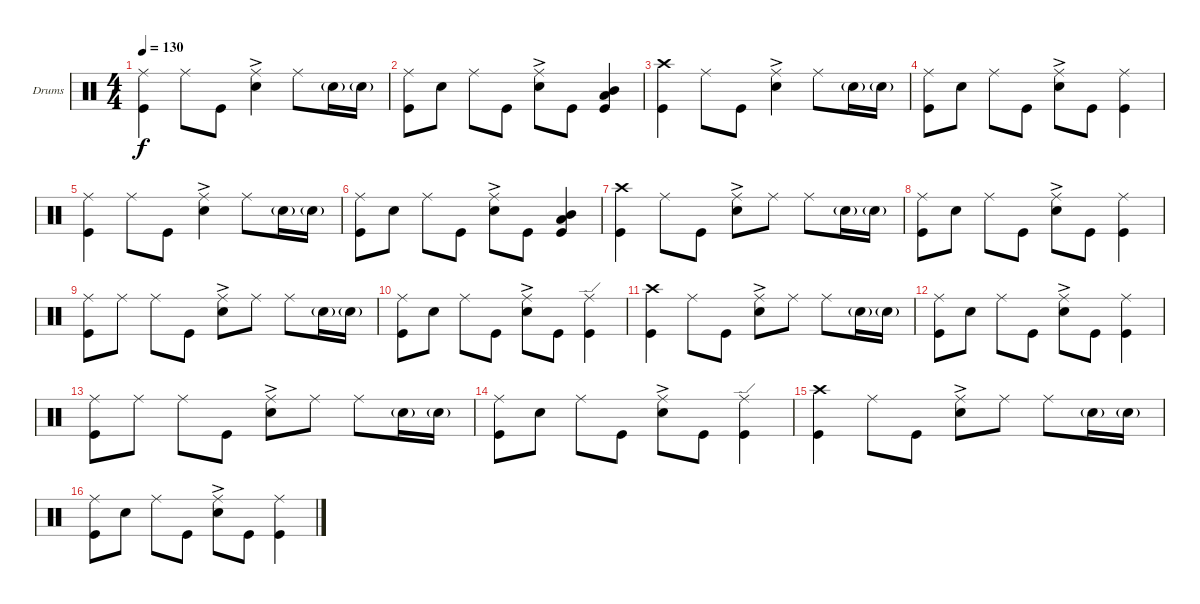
\bracketExtendMode groupsimilarinstruments
\firstSystemTrackNameOrientation horizontal
\otherSystemsTrackNameOrientation horizontal
\track ("Drumkit" "Drums") {instrument percussion}
\staff {score}
\articulation defaults
\ts (4 4)
\tempo 130
\clef neutral
\ks c
("Kick (hit)" "Ride (middle)").4{dy f} "Ride (middle)".8 "Kick (hit)".8 ("Snare (hit) 2"{ac} "Ride (middle)").4 "Ride (middle)".8 "Snare (hit) 2"{g}.16 "Snare (hit) 2"{g}.16 |
("Kick (hit)" "Ride (middle)").8 "Snare (hit) 2".8 "Ride (middle)".8 "Kick (hit)".8 ("Snare (hit) 2"{ac} "Ride (middle)").8 "Kick (hit)".8 ("Kick (hit)" "Mid Tom (hit)" "Low Tom (hit)").4 |
("Kick (hit)" "Crash high (hit)").4 "Ride (middle)".8 "Kick (hit)".8 ("Snare (hit) 2"{ac} "Ride (middle)").4 "Ride (middle)".8 "Snare (hit) 2"{g}.16 "Snare (hit) 2"{g}.16 |
("Kick (hit)" "Ride (middle)").8 "Snare (hit) 2".8 "Ride (middle)".8 "Kick (hit)".8 ("Snare (hit) 2"{ac} "Ride (middle)").8 "Kick (hit)".8 ("Kick (hit)" "Ride (middle)").4 |
("Kick (hit)" "Ride (middle)").4 "Ride (middle)".8 "Kick (hit)".8 ("Snare (hit) 2"{ac} "Ride (middle)").4 "Ride (middle)".8 "Snare (hit) 2"{g}.16 "Snare (hit) 2"{g}.16 |
("Kick (hit)" "Ride (middle)").8 "Snare (hit) 2".8 "Ride (middle)".8 "Kick (hit)".8 ("Snare (hit) 2"{ac} "Ride (middle)").8 "Kick (hit)".8 ("Kick (hit)" "Mid Tom (hit)" "Low Tom (hit)").4 |
("Kick (hit)" "Crash high (hit)").4 "Ride (middle)".8 "Kick (hit)".8 ("Snare (hit) 2"{ac} "Ride (middle)").8 "Ride (middle)".8 "Ride (middle)".8 "Snare (hit) 2"{g}.16 "Snare (hit) 2"{g}.16 |
("Kick (hit)" "Ride (middle)").8 "Snare (hit) 2".8 "Ride (middle)".8 "Kick (hit)".8 ("Snare (hit) 2"{ac} "Ride (middle)").8 "Kick (hit)".8 ("Kick (hit)" "Ride (middle)").4 |
("Kick (hit)" "Ride (middle)").8 "Ride (middle)".8 "Ride (middle)".8 "Kick (hit)".8 ("Snare (hit) 2"{ac} "Ride (middle)").8 "Ride (middle)".8 "Ride (middle)".8 "Snare (hit) 2"{g}.16 "Snare (hit) 2"{g}.16 |
("Kick (hit)" "Ride (middle)").8 "Snare (hit) 2".8 "Ride (middle)".8 "Kick (hit)".8 ("Snare (hit) 2"{ac} "Ride (middle)").8 "Kick (hit)".8 ("Kick (hit)" "Ride (edge)").4 |
("Kick (hit)" "Crash high (hit)").4 "Ride (middle)".8 "Kick (hit)".8 ("Snare (hit) 2"{ac} "Ride (middle)").8 "Ride (middle)".8 "Ride (middle)".8 "Snare (hit) 2"{g}.16 "Snare (hit) 2"{g}.16 |
("Kick (hit)" "Ride (middle)").8 "Snare (hit) 2".8 "Ride (middle)".8 "Kick (hit)".8 ("Snare (hit) 2"{ac} "Ride (middle)").8 "Kick (hit)".8 ("Kick (hit)" "Ride (middle)").4 |
("Kick (hit)" "Ride (middle)").8 "Ride (middle)".8 "Ride (middle)".8 "Kick (hit)".8 ("Snare (hit) 2"{ac} "Ride (middle)").8 "Ride (middle)".8 "Ride (middle)".8 "Snare (hit) 2"{g}.16 "Snare (hit) 2"{g}.16 |
("Kick (hit)" "Ride (middle)").8 "Snare (hit) 2".8 "Ride (middle)".8 "Kick (hit)".8 ("Snare (hit) 2"{ac} "Ride (middle)").8 "Kick (hit)".8 ("Kick (hit)" "Ride (edge)").4 |
("Kick (hit)" "Crash high (hit)").4 "Ride (middle)".8 "Kick (hit)".8 ("Snare (hit) 2"{ac} "Ride (middle)").8 "Ride (middle)".8 "Ride (middle)".8 "Snare (hit) 2"{g}.16 "Snare (hit) 2"{g}.16 |
("Kick (hit)" "Ride (middle)").8 "Snare (hit) 2".8 "Ride (middle)".8 "Kick (hit)".8 ("Snare (hit) 2"{ac} "Ride (middle)").8 "Kick (hit)".8 ("Kick (hit)" "Ride (middle)").4
